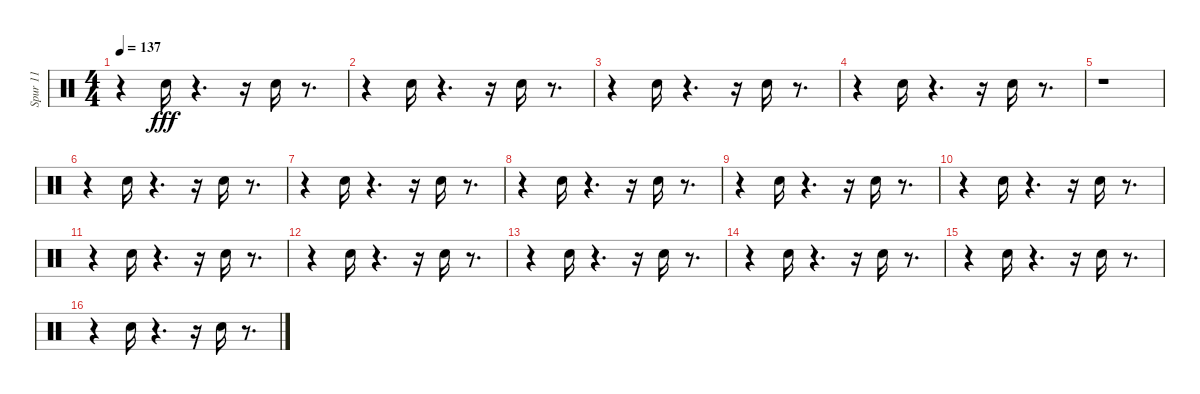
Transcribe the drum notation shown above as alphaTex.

\track ("Spur 11" "Spur 11") {instrument percussion}
\staff {score}
\articulation defaults
\ts (4 4)
\tempo 137
\clef neutral
\ks c
r.4{dy fff} "Snare (hit) 2".16 r.4{d} r.16 "Snare (hit) 2".16 r.8{d} |
r.4 "Snare (hit) 2".16 r.4{d} r.16 "Snare (hit) 2".16 r.8{d} |
r.4 "Snare (hit) 2".16 r.4{d} r.16 "Snare (hit) 2".16 r.8{d} |
r.4 "Snare (hit) 2".16 r.4{d} r.16 "Snare (hit) 2".16 r.8{d} |
r.1 |
r.4 "Snare (hit) 2".16 r.4{d} r.16 "Snare (hit) 2".16 r.8{d} |
r.4 "Snare (hit) 2".16 r.4{d} r.16 "Snare (hit) 2".16 r.8{d} |
r.4 "Snare (hit) 2".16 r.4{d} r.16 "Snare (hit) 2".16 r.8{d} |
r.4 "Snare (hit) 2".16 r.4{d} r.16 "Snare (hit) 2".16 r.8{d} |
r.4 "Snare (hit) 2".16 r.4{d} r.16 "Snare (hit) 2".16 r.8{d} |
r.4 "Snare (hit) 2".16 r.4{d} r.16 "Snare (hit) 2".16 r.8{d} |
r.4 "Snare (hit) 2".16 r.4{d} r.16 "Snare (hit) 2".16 r.8{d} |
r.4 "Snare (hit) 2".16 r.4{d} r.16 "Snare (hit) 2".16 r.8{d} |
r.4 "Snare (hit) 2".16 r.4{d} r.16 "Snare (hit) 2".16 r.8{d} |
r.4 "Snare (hit) 2".16 r.4{d} r.16 "Snare (hit) 2".16 r.8{d} |
r.4 "Snare (hit) 2".16 r.4{d} r.16 "Snare (hit) 2".16 r.8{d}
